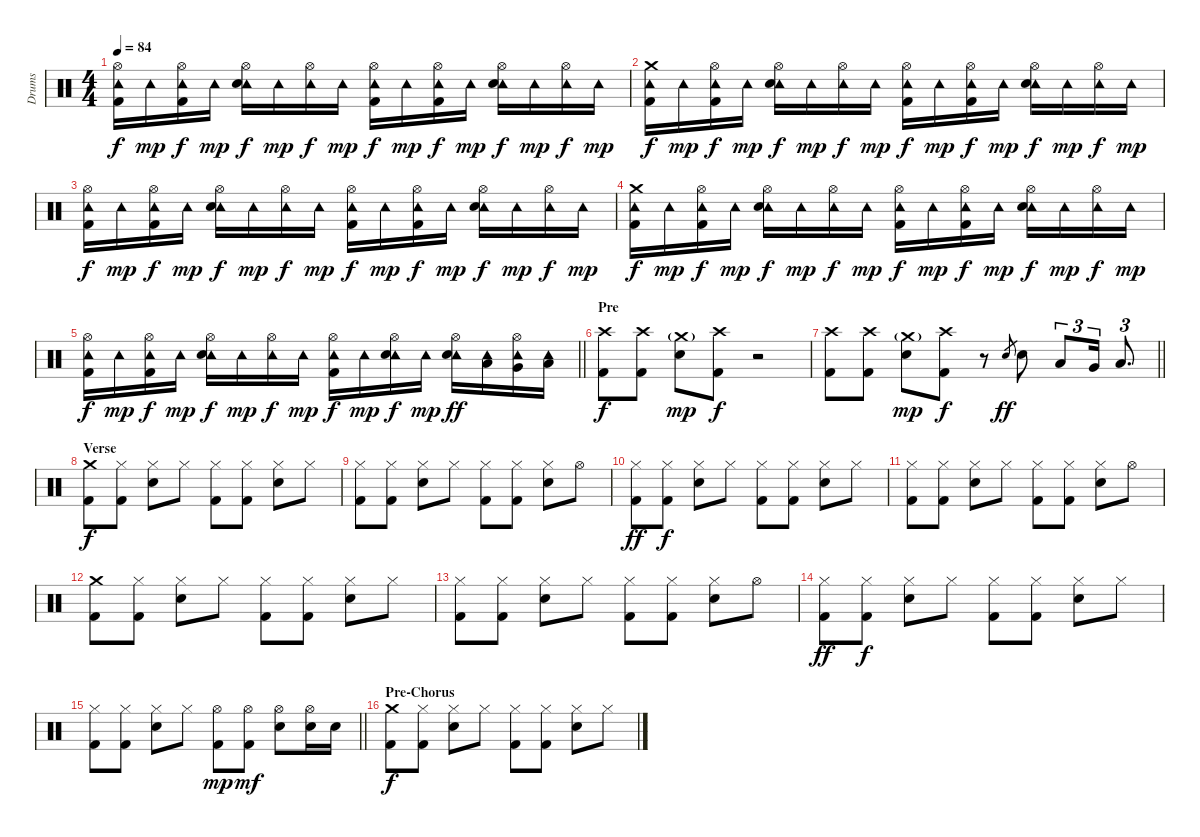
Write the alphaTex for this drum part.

\track ("Drums" "Drums") {instrument percussion}
\staff {score}
\articulation defaults
\ts (4 4)
\tempo 84
\clef neutral
\ks c
("Hi-Hat (open)" "Tambourine (hit)" "Kick (hit) 2").16{dy f} "Tambourine (hit)".16{dy mp} ("Hi-Hat (open)" "Tambourine (hit)" "Kick (hit) 2").16{dy f} "Tambourine (hit)".16{dy mp} ("Hi-Hat (open)" "Tambourine (hit)" "Electric Snare (hit)").16{dy f} "Tambourine (hit)".16{dy mp} ("Hi-Hat (open)" "Tambourine (hit)").16{dy f} "Tambourine (hit)".16{dy mp} ("Hi-Hat (open)" "Tambourine (hit)" "Kick (hit) 2").16{dy f} "Tambourine (hit)".16{dy mp} ("Hi-Hat (open)" "Tambourine (hit)" "Kick (hit) 2").16{dy f} "Tambourine (hit)".16{dy mp} ("Hi-Hat (open)" "Tambourine (hit)" "Electric Snare (hit)").16{dy f} "Tambourine (hit)".16{dy mp} ("Hi-Hat (open)" "Tambourine (hit)").16{dy f} "Tambourine (hit)".16{dy mp} |
("Crash medium (hit)" "Tambourine (hit)" "Kick (hit) 2").16{dy f} "Tambourine (hit)".16{dy mp} ("Hi-Hat (open)" "Tambourine (hit)" "Kick (hit) 2").16{dy f} "Tambourine (hit)".16{dy mp} ("Hi-Hat (open)" "Tambourine (hit)" "Electric Snare (hit)").16{dy f} "Tambourine (hit)".16{dy mp} ("Hi-Hat (open)" "Tambourine (hit)").16{dy f} "Tambourine (hit)".16{dy mp} ("Hi-Hat (open)" "Tambourine (hit)" "Kick (hit) 2").16{dy f} "Tambourine (hit)".16{dy mp} ("Hi-Hat (open)" "Tambourine (hit)" "Kick (hit) 2").16{dy f} "Tambourine (hit)".16{dy mp} ("Hi-Hat (open)" "Tambourine (hit)" "Electric Snare (hit)").16{dy f} "Tambourine (hit)".16{dy mp} ("Hi-Hat (open)" "Tambourine (hit)").16{dy f} "Tambourine (hit)".16{dy mp} |
("Hi-Hat (open)" "Tambourine (hit)" "Kick (hit) 2").16{dy f} "Tambourine (hit)".16{dy mp} ("Hi-Hat (open)" "Tambourine (hit)" "Kick (hit) 2").16{dy f} "Tambourine (hit)".16{dy mp} ("Hi-Hat (open)" "Tambourine (hit)" "Electric Snare (hit)").16{dy f} "Tambourine (hit)".16{dy mp} ("Hi-Hat (open)" "Tambourine (hit)").16{dy f} "Tambourine (hit)".16{dy mp} ("Hi-Hat (open)" "Tambourine (hit)" "Kick (hit) 2").16{dy f} "Tambourine (hit)".16{dy mp} ("Hi-Hat (open)" "Tambourine (hit)" "Kick (hit) 2").16{dy f} "Tambourine (hit)".16{dy mp} ("Hi-Hat (open)" "Tambourine (hit)" "Electric Snare (hit)").16{dy f} "Tambourine (hit)".16{dy mp} ("Hi-Hat (open)" "Tambourine (hit)").16{dy f} "Tambourine (hit)".16{dy mp} |
("Crash medium (hit)" "Tambourine (hit)" "Kick (hit) 2").16{dy f} "Tambourine (hit)".16{dy mp} ("Hi-Hat (open)" "Tambourine (hit)" "Kick (hit) 2").16{dy f} "Tambourine (hit)".16{dy mp} ("Hi-Hat (open)" "Tambourine (hit)" "Electric Snare (hit)").16{dy f} "Tambourine (hit)".16{dy mp} ("Hi-Hat (open)" "Tambourine (hit)").16{dy f} "Tambourine (hit)".16{dy mp} ("Hi-Hat (open)" "Tambourine (hit)" "Kick (hit) 2").16{dy f} "Tambourine (hit)".16{dy mp} ("Hi-Hat (open)" "Tambourine (hit)" "Kick (hit) 2").16{dy f} "Tambourine (hit)".16{dy mp} ("Hi-Hat (open)" "Tambourine (hit)" "Electric Snare (hit)").16{dy f} "Tambourine (hit)".16{dy mp} ("Hi-Hat (open)" "Tambourine (hit)").16{dy f} "Tambourine (hit)".16{dy mp} |
\barLineRight lightlight
("Hi-Hat (open)" "Tambourine (hit)" "Kick (hit) 2").16{dy f} "Tambourine (hit)".16{dy mp} ("Hi-Hat (open)" "Tambourine (hit)" "Kick (hit) 2").16{dy f} "Tambourine (hit)".16{dy mp} ("Hi-Hat (open)" "Tambourine (hit)" "Electric Snare (hit)").16{dy f} "Tambourine (hit)".16{dy mp} ("Hi-Hat (open)" "Tambourine (hit)").16{dy f} "Tambourine (hit)".16{dy mp} ("Hi-Hat (open)" "Tambourine (hit)" "Kick (hit) 2").16{dy f} "Tambourine (hit)".16{dy mp} ("Hi-Hat (open)" "Tambourine (hit)" "Electric Snare (hit)").16{dy f} "Tambourine (hit)".16{dy mp} ("Hi-Hat (open)" "Tambourine (hit)" "Electric Snare (hit)").16{dy ff} ("Tambourine (hit)" "Low Tom (hit)").16 ("Hi-Hat (open)" "Tambourine (hit)" "Very Low Tom (hit)").16 ("Tambourine (hit)" "Low Floor Tom (hit)").16 |
\section ("" "Pre")
("Crash high (hit)" "Kick (hit) 2").8{dy f} ("Crash high (hit)" "Kick (hit) 2").8 ("Crash medium (hit)"{g} "Electric Snare (hit)").8{dy mp} ("Crash high (hit)" "Kick (hit) 2").8{dy f} r.2 |
\barLineRight lightlight
("Crash high (hit)" "Kick (hit) 2").8 ("Crash high (hit)" "Kick (hit) 2").8 ("Crash medium (hit)"{g} "Electric Snare (hit)").8{dy mp} ("Crash high (hit)" "Kick (hit) 2").8{dy f} r.8 "Electric Snare (hit)".8{gr dy ff} "Electric Snare (hit)".8 "Low Tom (hit)".8{tu (3 2)} "Very Low Tom (hit)".16{tu (3 2)} "Low Floor Tom (hit)".8{d tu (3 2)} |
\section ("" "Verse")
("Crash medium (hit)" "Kick (hit) 2").8{dy f} ("Hi-Hat (closed)" "Kick (hit) 2").8 ("Hi-Hat (closed)" "Electric Snare (hit)").8 "Hi-Hat (closed)".8 ("Hi-Hat (closed)" "Kick (hit) 2").8 ("Hi-Hat (closed)" "Kick (hit) 2").8 ("Hi-Hat (closed)" "Electric Snare (hit)").8 "Hi-Hat (closed)".8 |
("Hi-Hat (closed)" "Kick (hit) 2").8 ("Hi-Hat (closed)" "Kick (hit) 2").8 ("Hi-Hat (closed)" "Electric Snare (hit)").8 "Hi-Hat (closed)".8 ("Hi-Hat (closed)" "Kick (hit) 2").8 ("Hi-Hat (closed)" "Kick (hit) 2").8 ("Hi-Hat (closed)" "Electric Snare (hit)").8 "Hi-Hat (open)".8 |
("Hi-Hat (closed)" "Kick (hit) 2").8{dy ff} ("Hi-Hat (closed)" "Kick (hit) 2").8{dy f} ("Hi-Hat (closed)" "Electric Snare (hit)").8 "Hi-Hat (closed)".8 ("Hi-Hat (closed)" "Kick (hit) 2").8 ("Hi-Hat (closed)" "Kick (hit) 2").8 ("Hi-Hat (closed)" "Electric Snare (hit)").8 "Hi-Hat (closed)".8 |
("Hi-Hat (closed)" "Kick (hit) 2").8 ("Hi-Hat (closed)" "Kick (hit) 2").8 ("Hi-Hat (closed)" "Electric Snare (hit)").8 "Hi-Hat (closed)".8 ("Hi-Hat (closed)" "Kick (hit) 2").8 ("Hi-Hat (closed)" "Kick (hit) 2").8 ("Hi-Hat (closed)" "Electric Snare (hit)").8 "Hi-Hat (open)".8 |
("Crash medium (hit)" "Kick (hit) 2").8 ("Hi-Hat (closed)" "Kick (hit) 2").8 ("Hi-Hat (closed)" "Electric Snare (hit)").8 "Hi-Hat (closed)".8 ("Hi-Hat (closed)" "Kick (hit) 2").8 ("Hi-Hat (closed)" "Kick (hit) 2").8 ("Hi-Hat (closed)" "Electric Snare (hit)").8 "Hi-Hat (closed)".8 |
("Hi-Hat (closed)" "Kick (hit) 2").8 ("Hi-Hat (closed)" "Kick (hit) 2").8 ("Hi-Hat (closed)" "Electric Snare (hit)").8 "Hi-Hat (closed)".8 ("Hi-Hat (closed)" "Kick (hit) 2").8 ("Hi-Hat (closed)" "Kick (hit) 2").8 ("Hi-Hat (closed)" "Electric Snare (hit)").8 "Hi-Hat (open)".8 |
("Hi-Hat (closed)" "Kick (hit) 2").8{dy ff} ("Hi-Hat (closed)" "Kick (hit) 2").8{dy f} ("Hi-Hat (closed)" "Electric Snare (hit)").8 "Hi-Hat (closed)".8 ("Hi-Hat (closed)" "Kick (hit) 2").8 ("Hi-Hat (closed)" "Kick (hit) 2").8 ("Hi-Hat (closed)" "Electric Snare (hit)").8 "Hi-Hat (closed)".8 |
\barLineRight lightlight
("Hi-Hat (closed)" "Kick (hit) 2").8 ("Hi-Hat (closed)" "Kick (hit) 2").8 ("Hi-Hat (closed)" "Electric Snare (hit)").8 "Hi-Hat (closed)".8 ("Hi-Hat (open)" "Kick (hit) 2").8{dy mp} ("Hi-Hat (open)" "Kick (hit) 2").8{dy mf} ("Hi-Hat (open)" "Electric Snare (hit)").8 ("Hi-Hat (open)" "Electric Snare (hit)").16 "Electric Snare (hit)".16 |
\section ("" "Pre-Chorus")
("Crash medium (hit)" "Kick (hit) 2").8{dy f} ("Hi-Hat (closed)" "Kick (hit) 2").8 ("Hi-Hat (closed)" "Electric Snare (hit)").8 "Hi-Hat (closed)".8 ("Hi-Hat (closed)" "Kick (hit) 2").8 ("Hi-Hat (closed)" "Kick (hit) 2").8 ("Hi-Hat (closed)" "Electric Snare (hit)").8 "Hi-Hat (closed)".8
